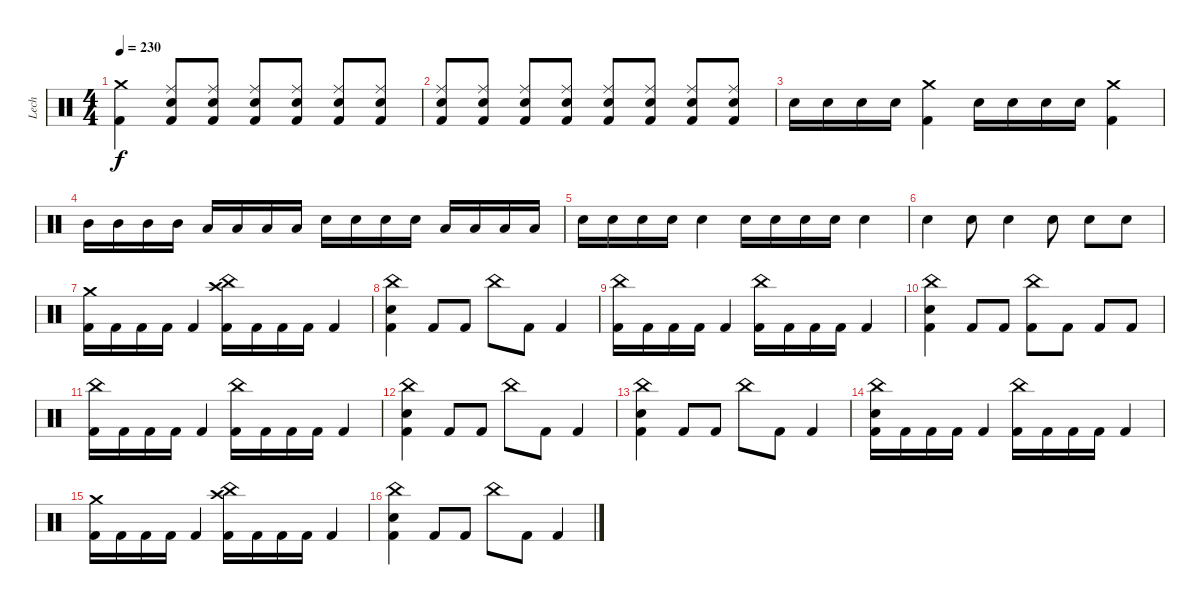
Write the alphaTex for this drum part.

\track ("Lech" "Lech") {instrument percussion}
\staff {score}
\articulation defaults
\ts (4 4)
\tempo 230
\clef neutral
\ks c
("Crash medium (hit)" "Kick (hit) 2").4{dy f} ("Ride (middle)" "Electric Snare (hit)" "Kick (hit) 2").8 ("Ride (middle)" "Electric Snare (hit)" "Kick (hit) 2").8 ("Ride (middle)" "Electric Snare (hit)" "Kick (hit) 2").8 ("Ride (middle)" "Electric Snare (hit)" "Kick (hit) 2").8 ("Ride (middle)" "Electric Snare (hit)" "Kick (hit) 2").8 ("Ride (middle)" "Electric Snare (hit)" "Kick (hit) 2").8 |
("Ride (middle)" "Electric Snare (hit)" "Kick (hit) 2").8 ("Ride (middle)" "Electric Snare (hit)" "Kick (hit) 2").8 ("Ride (middle)" "Electric Snare (hit)" "Kick (hit) 2").8 ("Ride (middle)" "Electric Snare (hit)" "Kick (hit) 2").8 ("Ride (middle)" "Electric Snare (hit)" "Kick (hit) 2").8 ("Ride (middle)" "Electric Snare (hit)" "Kick (hit) 2").8 ("Ride (middle)" "Electric Snare (hit)" "Kick (hit) 2").8 ("Ride (middle)" "Electric Snare (hit)" "Kick (hit) 2").8 |
"Electric Snare (hit)".16 "Electric Snare (hit)".16 "Electric Snare (hit)".16 "Electric Snare (hit)".16 ("Crash medium (hit)" "Kick (hit) 2").4 "Electric Snare (hit)".16 "Electric Snare (hit)".16 "Electric Snare (hit)".16 "Electric Snare (hit)".16 ("Crash medium (hit)" "Kick (hit) 2").4 |
"Mid Tom (hit)".16 "Mid Tom (hit)".16 "Mid Tom (hit)".16 "Mid Tom (hit)".16 "Low Tom (hit)".16 "Low Tom (hit)".16 "Low Tom (hit)".16 "Low Tom (hit)".16 "Electric Snare (hit)".16 "Electric Snare (hit)".16 "Electric Snare (hit)".16 "Electric Snare (hit)".16 "Low Tom (hit)".16 "Low Tom (hit)".16 "Low Tom (hit)".16 "Low Tom (hit)".16 |
"Electric Snare (hit)".16 "Electric Snare (hit)".16 "Electric Snare (hit)".16 "Electric Snare (hit)".16 "Electric Snare (hit)".4 "Electric Snare (hit)".16 "Electric Snare (hit)".16 "Electric Snare (hit)".16 "Electric Snare (hit)".16 "Electric Snare (hit)".4 |
"Electric Snare (hit)".4 "Electric Snare (hit)".8 "Electric Snare (hit)".4 "Electric Snare (hit)".8 "Electric Snare (hit)".8 "Electric Snare (hit)".8 |
("Crash medium (hit)" "Kick (hit) 2").16 "Kick (hit) 2".16 "Kick (hit) 2".16 "Kick (hit) 2".16 "Kick (hit) 2".4 ("China (hit)" "Crash high (hit)" "Kick (hit) 2").16 "Kick (hit) 2".16 "Kick (hit) 2".16 "Kick (hit) 2".16 "Kick (hit) 2".4 |
("China (hit)" "Electric Snare (hit)" "Kick (hit) 2").4 "Kick (hit) 2".8 "Kick (hit) 2".8 "China (hit)".8 "Kick (hit) 2".8 "Kick (hit) 2".4 |
("China (hit)" "Kick (hit) 2").16 "Kick (hit) 2".16 "Kick (hit) 2".16 "Kick (hit) 2".16 "Kick (hit) 2".4 ("China (hit)" "Kick (hit) 2").16 "Kick (hit) 2".16 "Kick (hit) 2".16 "Kick (hit) 2".16 "Kick (hit) 2".4 |
("China (hit)" "Electric Snare (hit)" "Kick (hit) 2").4 "Kick (hit) 2".8 "Kick (hit) 2".8 ("China (hit)" "Kick (hit) 2").8 "Kick (hit) 2".8 "Kick (hit) 2".8 "Kick (hit) 2".8 |
("China (hit)" "Kick (hit) 2").16 "Kick (hit) 2".16 "Kick (hit) 2".16 "Kick (hit) 2".16 "Kick (hit) 2".4 ("China (hit)" "Kick (hit) 2").16 "Kick (hit) 2".16 "Kick (hit) 2".16 "Kick (hit) 2".16 "Kick (hit) 2".4 |
("China (hit)" "Electric Snare (hit)" "Kick (hit) 2").4 "Kick (hit) 2".8 "Kick (hit) 2".8 "China (hit)".8 "Kick (hit) 2".8 "Kick (hit) 2".4 |
("China (hit)" "Electric Snare (hit)" "Kick (hit) 2").4 "Kick (hit) 2".8 "Kick (hit) 2".8 "China (hit)".8 "Kick (hit) 2".8 "Kick (hit) 2".4 |
("China (hit)" "Electric Snare (hit)" "Kick (hit) 2").16 "Kick (hit) 2".16 "Kick (hit) 2".16 "Kick (hit) 2".16 "Kick (hit) 2".4 ("China (hit)" "Kick (hit) 2").16 "Kick (hit) 2".16 "Kick (hit) 2".16 "Kick (hit) 2".16 "Kick (hit) 2".4 |
("Crash medium (hit)" "Kick (hit) 2").16 "Kick (hit) 2".16 "Kick (hit) 2".16 "Kick (hit) 2".16 "Kick (hit) 2".4 ("China (hit)" "Crash high (hit)" "Kick (hit) 2").16 "Kick (hit) 2".16 "Kick (hit) 2".16 "Kick (hit) 2".16 "Kick (hit) 2".4 |
("China (hit)" "Electric Snare (hit)" "Kick (hit) 2").4 "Kick (hit) 2".8 "Kick (hit) 2".8 "China (hit)".8 "Kick (hit) 2".8 "Kick (hit) 2".4
